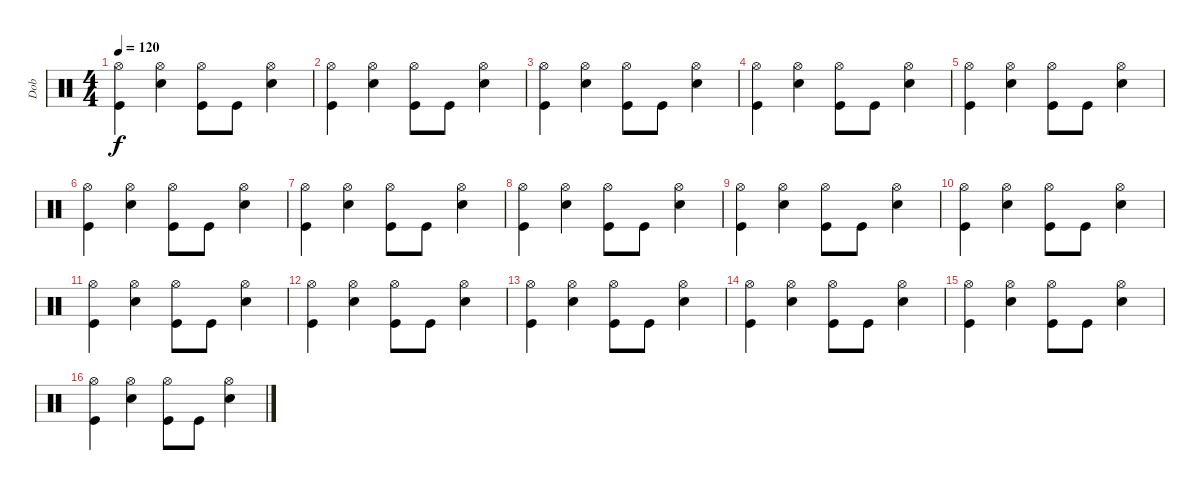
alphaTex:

\track ("Dob" "Dob") {instrument percussion}
\staff {score}
\articulation defaults
\ts (4 4)
\tempo 120
\clef neutral
\ks c
("Hi-Hat (open)" "Kick (hit)").4{dy f} ("Hi-Hat (open)" "Snare (hit) 2").4 ("Hi-Hat (open)" "Kick (hit)").8 "Kick (hit)".8 ("Hi-Hat (open)" "Snare (hit) 2").4 |
("Hi-Hat (open)" "Kick (hit)").4 ("Hi-Hat (open)" "Snare (hit) 2").4 ("Hi-Hat (open)" "Kick (hit)").8 "Kick (hit)".8 ("Hi-Hat (open)" "Snare (hit) 2").4 |
("Hi-Hat (open)" "Kick (hit)").4 ("Hi-Hat (open)" "Snare (hit) 2").4 ("Hi-Hat (open)" "Kick (hit)").8 "Kick (hit)".8 ("Hi-Hat (open)" "Snare (hit) 2").4 |
("Hi-Hat (open)" "Kick (hit)").4 ("Hi-Hat (open)" "Snare (hit) 2").4 ("Hi-Hat (open)" "Kick (hit)").8 "Kick (hit)".8 ("Hi-Hat (open)" "Snare (hit) 2").4 |
("Hi-Hat (open)" "Kick (hit)").4 ("Hi-Hat (open)" "Snare (hit) 2").4 ("Hi-Hat (open)" "Kick (hit)").8 "Kick (hit)".8 ("Hi-Hat (open)" "Snare (hit) 2").4 |
("Hi-Hat (open)" "Kick (hit)").4 ("Hi-Hat (open)" "Snare (hit) 2").4 ("Hi-Hat (open)" "Kick (hit)").8 "Kick (hit)".8 ("Hi-Hat (open)" "Snare (hit) 2").4 |
("Hi-Hat (open)" "Kick (hit)").4 ("Hi-Hat (open)" "Snare (hit) 2").4 ("Hi-Hat (open)" "Kick (hit)").8 "Kick (hit)".8 ("Hi-Hat (open)" "Snare (hit) 2").4 |
("Hi-Hat (open)" "Kick (hit)").4 ("Hi-Hat (open)" "Snare (hit) 2").4 ("Hi-Hat (open)" "Kick (hit)").8 "Kick (hit)".8 ("Hi-Hat (open)" "Snare (hit) 2").4 |
("Hi-Hat (open)" "Kick (hit)").4 ("Hi-Hat (open)" "Snare (hit) 2").4 ("Hi-Hat (open)" "Kick (hit)").8 "Kick (hit)".8 ("Hi-Hat (open)" "Snare (hit) 2").4 |
("Hi-Hat (open)" "Kick (hit)").4 ("Hi-Hat (open)" "Snare (hit) 2").4 ("Hi-Hat (open)" "Kick (hit)").8 "Kick (hit)".8 ("Hi-Hat (open)" "Snare (hit) 2").4 |
("Hi-Hat (open)" "Kick (hit)").4 ("Hi-Hat (open)" "Snare (hit) 2").4 ("Hi-Hat (open)" "Kick (hit)").8 "Kick (hit)".8 ("Hi-Hat (open)" "Snare (hit) 2").4 |
("Hi-Hat (open)" "Kick (hit)").4 ("Hi-Hat (open)" "Snare (hit) 2").4 ("Hi-Hat (open)" "Kick (hit)").8 "Kick (hit)".8 ("Hi-Hat (open)" "Snare (hit) 2").4 |
("Hi-Hat (open)" "Kick (hit)").4 ("Hi-Hat (open)" "Snare (hit) 2").4 ("Hi-Hat (open)" "Kick (hit)").8 "Kick (hit)".8 ("Hi-Hat (open)" "Snare (hit) 2").4 |
("Hi-Hat (open)" "Kick (hit)").4 ("Hi-Hat (open)" "Snare (hit) 2").4 ("Hi-Hat (open)" "Kick (hit)").8 "Kick (hit)".8 ("Hi-Hat (open)" "Snare (hit) 2").4 |
("Hi-Hat (open)" "Kick (hit)").4 ("Hi-Hat (open)" "Snare (hit) 2").4 ("Hi-Hat (open)" "Kick (hit)").8 "Kick (hit)".8 ("Hi-Hat (open)" "Snare (hit) 2").4 |
("Hi-Hat (open)" "Kick (hit)").4 ("Hi-Hat (open)" "Snare (hit) 2").4 ("Hi-Hat (open)" "Kick (hit)").8 "Kick (hit)".8 ("Hi-Hat (open)" "Snare (hit) 2").4
